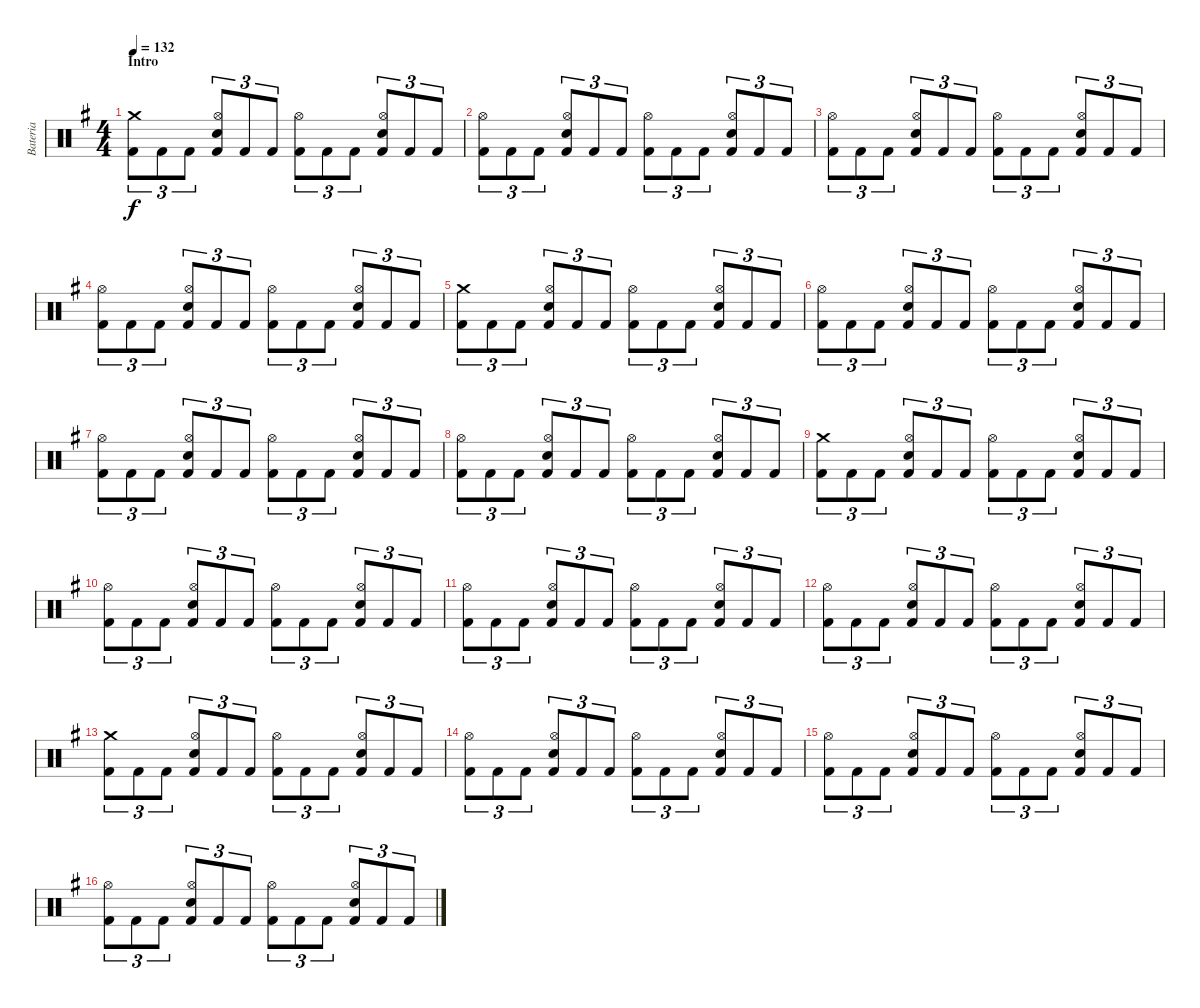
\track ("Bateria" "Bateria") {instrument percussion}
\staff {score}
\articulation defaults
\ts (4 4)
\section ("" "Intro")
\tempo 132
\clef neutral
\ks eminor
("Crash medium (hit)" "Kick (hit) 2").8{tu (3 2) dy f} "Kick (hit) 2".8{tu (3 2)} "Kick (hit) 2".8{tu (3 2)} ("Hi-Hat (open)" "Electric Snare (hit)" "Kick (hit) 2").8{tu (3 2)} "Kick (hit) 2".8{tu (3 2)} "Kick (hit) 2".8{tu (3 2)} ("Hi-Hat (open)" "Kick (hit) 2").8{tu (3 2)} "Kick (hit) 2".8{tu (3 2)} "Kick (hit) 2".8{tu (3 2)} ("Hi-Hat (open)" "Electric Snare (hit)" "Kick (hit) 2").8{tu (3 2)} "Kick (hit) 2".8{tu (3 2)} "Kick (hit) 2".8{tu (3 2)} |
("Hi-Hat (open)" "Kick (hit) 2").8{tu (3 2)} "Kick (hit) 2".8{tu (3 2)} "Kick (hit) 2".8{tu (3 2)} ("Hi-Hat (open)" "Electric Snare (hit)" "Kick (hit) 2").8{tu (3 2)} "Kick (hit) 2".8{tu (3 2)} "Kick (hit) 2".8{tu (3 2)} ("Hi-Hat (open)" "Kick (hit) 2").8{tu (3 2)} "Kick (hit) 2".8{tu (3 2)} "Kick (hit) 2".8{tu (3 2)} ("Hi-Hat (open)" "Electric Snare (hit)" "Kick (hit) 2").8{tu (3 2)} "Kick (hit) 2".8{tu (3 2)} "Kick (hit) 2".8{tu (3 2)} |
("Hi-Hat (open)" "Kick (hit) 2").8{tu (3 2)} "Kick (hit) 2".8{tu (3 2)} "Kick (hit) 2".8{tu (3 2)} ("Hi-Hat (open)" "Electric Snare (hit)" "Kick (hit) 2").8{tu (3 2)} "Kick (hit) 2".8{tu (3 2)} "Kick (hit) 2".8{tu (3 2)} ("Hi-Hat (open)" "Kick (hit) 2").8{tu (3 2)} "Kick (hit) 2".8{tu (3 2)} "Kick (hit) 2".8{tu (3 2)} ("Hi-Hat (open)" "Electric Snare (hit)" "Kick (hit) 2").8{tu (3 2)} "Kick (hit) 2".8{tu (3 2)} "Kick (hit) 2".8{tu (3 2)} |
("Hi-Hat (open)" "Kick (hit) 2").8{tu (3 2)} "Kick (hit) 2".8{tu (3 2)} "Kick (hit) 2".8{tu (3 2)} ("Hi-Hat (open)" "Electric Snare (hit)" "Kick (hit) 2").8{tu (3 2)} "Kick (hit) 2".8{tu (3 2)} "Kick (hit) 2".8{tu (3 2)} ("Hi-Hat (open)" "Kick (hit) 2").8{tu (3 2)} "Kick (hit) 2".8{tu (3 2)} "Kick (hit) 2".8{tu (3 2)} ("Hi-Hat (open)" "Electric Snare (hit)" "Kick (hit) 2").8{tu (3 2)} "Kick (hit) 2".8{tu (3 2)} "Kick (hit) 2".8{tu (3 2)} |
("Crash medium (hit)" "Kick (hit) 2").8{tu (3 2)} "Kick (hit) 2".8{tu (3 2)} "Kick (hit) 2".8{tu (3 2)} ("Hi-Hat (open)" "Electric Snare (hit)" "Kick (hit) 2").8{tu (3 2)} "Kick (hit) 2".8{tu (3 2)} "Kick (hit) 2".8{tu (3 2)} ("Hi-Hat (open)" "Kick (hit) 2").8{tu (3 2)} "Kick (hit) 2".8{tu (3 2)} "Kick (hit) 2".8{tu (3 2)} ("Hi-Hat (open)" "Electric Snare (hit)" "Kick (hit) 2").8{tu (3 2)} "Kick (hit) 2".8{tu (3 2)} "Kick (hit) 2".8{tu (3 2)} |
("Hi-Hat (open)" "Kick (hit) 2").8{tu (3 2)} "Kick (hit) 2".8{tu (3 2)} "Kick (hit) 2".8{tu (3 2)} ("Hi-Hat (open)" "Electric Snare (hit)" "Kick (hit) 2").8{tu (3 2)} "Kick (hit) 2".8{tu (3 2)} "Kick (hit) 2".8{tu (3 2)} ("Hi-Hat (open)" "Kick (hit) 2").8{tu (3 2)} "Kick (hit) 2".8{tu (3 2)} "Kick (hit) 2".8{tu (3 2)} ("Hi-Hat (open)" "Electric Snare (hit)" "Kick (hit) 2").8{tu (3 2)} "Kick (hit) 2".8{tu (3 2)} "Kick (hit) 2".8{tu (3 2)} |
("Hi-Hat (open)" "Kick (hit) 2").8{tu (3 2)} "Kick (hit) 2".8{tu (3 2)} "Kick (hit) 2".8{tu (3 2)} ("Hi-Hat (open)" "Electric Snare (hit)" "Kick (hit) 2").8{tu (3 2)} "Kick (hit) 2".8{tu (3 2)} "Kick (hit) 2".8{tu (3 2)} ("Hi-Hat (open)" "Kick (hit) 2").8{tu (3 2)} "Kick (hit) 2".8{tu (3 2)} "Kick (hit) 2".8{tu (3 2)} ("Hi-Hat (open)" "Electric Snare (hit)" "Kick (hit) 2").8{tu (3 2)} "Kick (hit) 2".8{tu (3 2)} "Kick (hit) 2".8{tu (3 2)} |
("Hi-Hat (open)" "Kick (hit) 2").8{tu (3 2)} "Kick (hit) 2".8{tu (3 2)} "Kick (hit) 2".8{tu (3 2)} ("Hi-Hat (open)" "Electric Snare (hit)" "Kick (hit) 2").8{tu (3 2)} "Kick (hit) 2".8{tu (3 2)} "Kick (hit) 2".8{tu (3 2)} ("Hi-Hat (open)" "Kick (hit) 2").8{tu (3 2)} "Kick (hit) 2".8{tu (3 2)} "Kick (hit) 2".8{tu (3 2)} ("Hi-Hat (open)" "Electric Snare (hit)" "Kick (hit) 2").8{tu (3 2)} "Kick (hit) 2".8{tu (3 2)} "Kick (hit) 2".8{tu (3 2)} |
("Crash medium (hit)" "Kick (hit) 2").8{tu (3 2)} "Kick (hit) 2".8{tu (3 2)} "Kick (hit) 2".8{tu (3 2)} ("Hi-Hat (open)" "Electric Snare (hit)" "Kick (hit) 2").8{tu (3 2)} "Kick (hit) 2".8{tu (3 2)} "Kick (hit) 2".8{tu (3 2)} ("Hi-Hat (open)" "Kick (hit) 2").8{tu (3 2)} "Kick (hit) 2".8{tu (3 2)} "Kick (hit) 2".8{tu (3 2)} ("Hi-Hat (open)" "Electric Snare (hit)" "Kick (hit) 2").8{tu (3 2)} "Kick (hit) 2".8{tu (3 2)} "Kick (hit) 2".8{tu (3 2)} |
("Hi-Hat (open)" "Kick (hit) 2").8{tu (3 2)} "Kick (hit) 2".8{tu (3 2)} "Kick (hit) 2".8{tu (3 2)} ("Hi-Hat (open)" "Electric Snare (hit)" "Kick (hit) 2").8{tu (3 2)} "Kick (hit) 2".8{tu (3 2)} "Kick (hit) 2".8{tu (3 2)} ("Hi-Hat (open)" "Kick (hit) 2").8{tu (3 2)} "Kick (hit) 2".8{tu (3 2)} "Kick (hit) 2".8{tu (3 2)} ("Hi-Hat (open)" "Electric Snare (hit)" "Kick (hit) 2").8{tu (3 2)} "Kick (hit) 2".8{tu (3 2)} "Kick (hit) 2".8{tu (3 2)} |
("Hi-Hat (open)" "Kick (hit) 2").8{tu (3 2)} "Kick (hit) 2".8{tu (3 2)} "Kick (hit) 2".8{tu (3 2)} ("Hi-Hat (open)" "Electric Snare (hit)" "Kick (hit) 2").8{tu (3 2)} "Kick (hit) 2".8{tu (3 2)} "Kick (hit) 2".8{tu (3 2)} ("Hi-Hat (open)" "Kick (hit) 2").8{tu (3 2)} "Kick (hit) 2".8{tu (3 2)} "Kick (hit) 2".8{tu (3 2)} ("Hi-Hat (open)" "Electric Snare (hit)" "Kick (hit) 2").8{tu (3 2)} "Kick (hit) 2".8{tu (3 2)} "Kick (hit) 2".8{tu (3 2)} |
("Hi-Hat (open)" "Kick (hit) 2").8{tu (3 2)} "Kick (hit) 2".8{tu (3 2)} "Kick (hit) 2".8{tu (3 2)} ("Hi-Hat (open)" "Electric Snare (hit)" "Kick (hit) 2").8{tu (3 2)} "Kick (hit) 2".8{tu (3 2)} "Kick (hit) 2".8{tu (3 2)} ("Hi-Hat (open)" "Kick (hit) 2").8{tu (3 2)} "Kick (hit) 2".8{tu (3 2)} "Kick (hit) 2".8{tu (3 2)} ("Hi-Hat (open)" "Electric Snare (hit)" "Kick (hit) 2").8{tu (3 2)} "Kick (hit) 2".8{tu (3 2)} "Kick (hit) 2".8{tu (3 2)} |
("Crash medium (hit)" "Kick (hit) 2").8{tu (3 2)} "Kick (hit) 2".8{tu (3 2)} "Kick (hit) 2".8{tu (3 2)} ("Hi-Hat (open)" "Electric Snare (hit)" "Kick (hit) 2").8{tu (3 2)} "Kick (hit) 2".8{tu (3 2)} "Kick (hit) 2".8{tu (3 2)} ("Hi-Hat (open)" "Kick (hit) 2").8{tu (3 2)} "Kick (hit) 2".8{tu (3 2)} "Kick (hit) 2".8{tu (3 2)} ("Hi-Hat (open)" "Electric Snare (hit)" "Kick (hit) 2").8{tu (3 2)} "Kick (hit) 2".8{tu (3 2)} "Kick (hit) 2".8{tu (3 2)} |
("Hi-Hat (open)" "Kick (hit) 2").8{tu (3 2)} "Kick (hit) 2".8{tu (3 2)} "Kick (hit) 2".8{tu (3 2)} ("Hi-Hat (open)" "Electric Snare (hit)" "Kick (hit) 2").8{tu (3 2)} "Kick (hit) 2".8{tu (3 2)} "Kick (hit) 2".8{tu (3 2)} ("Hi-Hat (open)" "Kick (hit) 2").8{tu (3 2)} "Kick (hit) 2".8{tu (3 2)} "Kick (hit) 2".8{tu (3 2)} ("Hi-Hat (open)" "Electric Snare (hit)" "Kick (hit) 2").8{tu (3 2)} "Kick (hit) 2".8{tu (3 2)} "Kick (hit) 2".8{tu (3 2)} |
("Hi-Hat (open)" "Kick (hit) 2").8{tu (3 2)} "Kick (hit) 2".8{tu (3 2)} "Kick (hit) 2".8{tu (3 2)} ("Hi-Hat (open)" "Electric Snare (hit)" "Kick (hit) 2").8{tu (3 2)} "Kick (hit) 2".8{tu (3 2)} "Kick (hit) 2".8{tu (3 2)} ("Hi-Hat (open)" "Kick (hit) 2").8{tu (3 2)} "Kick (hit) 2".8{tu (3 2)} "Kick (hit) 2".8{tu (3 2)} ("Hi-Hat (open)" "Electric Snare (hit)" "Kick (hit) 2").8{tu (3 2)} "Kick (hit) 2".8{tu (3 2)} "Kick (hit) 2".8{tu (3 2)} |
("Hi-Hat (open)" "Kick (hit) 2").8{tu (3 2)} "Kick (hit) 2".8{tu (3 2)} "Kick (hit) 2".8{tu (3 2)} ("Hi-Hat (open)" "Electric Snare (hit)" "Kick (hit) 2").8{tu (3 2)} "Kick (hit) 2".8{tu (3 2)} "Kick (hit) 2".8{tu (3 2)} ("Hi-Hat (open)" "Kick (hit) 2").8{tu (3 2)} "Kick (hit) 2".8{tu (3 2)} "Kick (hit) 2".8{tu (3 2)} ("Hi-Hat (open)" "Electric Snare (hit)" "Kick (hit) 2").8{tu (3 2)} "Kick (hit) 2".8{tu (3 2)} "Kick (hit) 2".8{tu (3 2)}
